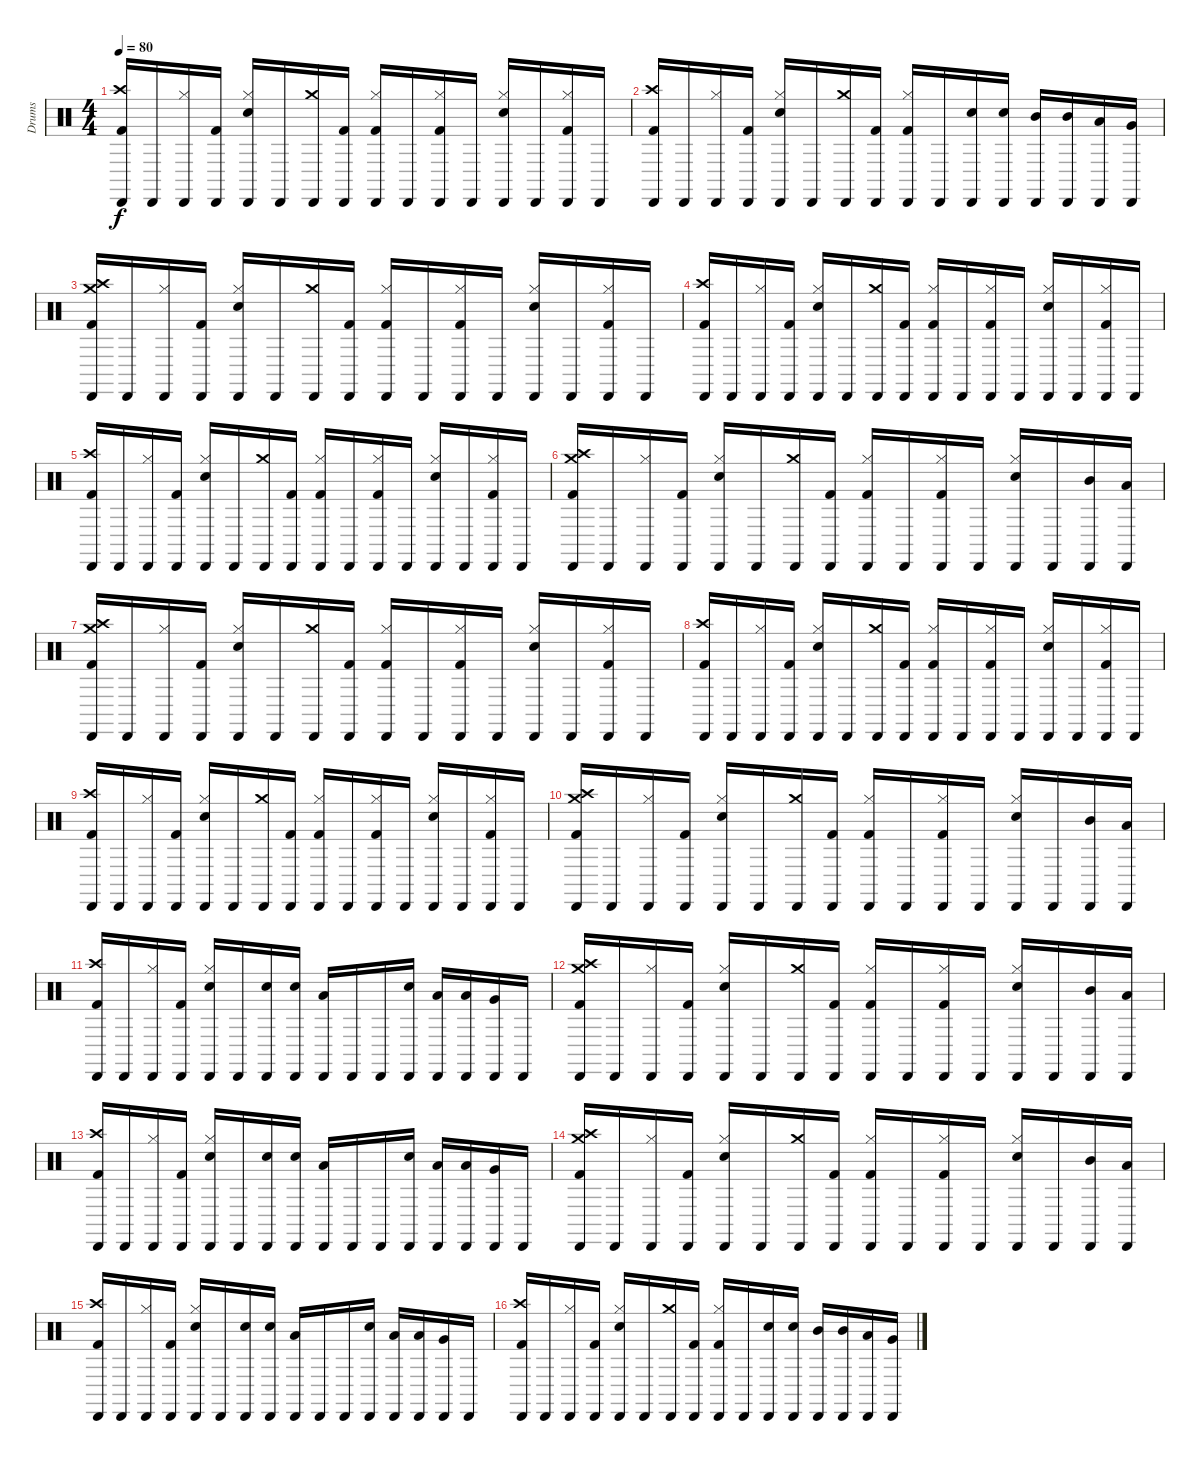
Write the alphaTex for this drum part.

\track ("Drums" "Drums") {instrument percussion}
\staff {score}
\articulation defaults
\ts (4 4)
\tempo 80
\clef neutral
\ks c
("Cabasa (hit)" "Crash high (hit)" "Kick (hit) 2").16{dy f} "Cabasa (hit)".16 ("Cabasa (hit)" "Hi-Hat (closed)").16 ("Cabasa (hit)" "Kick (hit) 2").16 ("Cabasa (hit)" "Hi-Hat (closed)" "Electric Snare (hit)").16 "Cabasa (hit)".16 ("Cabasa (hit)" "Crash medium (hit)").16 ("Cabasa (hit)" "Kick (hit) 2").16 ("Cabasa (hit)" "Hi-Hat (closed)" "Kick (hit) 2").16 "Cabasa (hit)".16 ("Cabasa (hit)" "Hi-Hat (closed)" "Kick (hit) 2").16 "Cabasa (hit)".16 ("Cabasa (hit)" "Hi-Hat (closed)" "Electric Snare (hit)").16 "Cabasa (hit)".16 ("Cabasa (hit)" "Hi-Hat (closed)" "Kick (hit) 2").16 "Cabasa (hit)".16 |
("Cabasa (hit)" "Crash high (hit)" "Kick (hit) 2").16 "Cabasa (hit)".16 ("Cabasa (hit)" "Hi-Hat (closed)").16 ("Cabasa (hit)" "Kick (hit) 2").16 ("Cabasa (hit)" "Hi-Hat (closed)" "Electric Snare (hit)").16 "Cabasa (hit)".16 ("Cabasa (hit)" "Crash medium (hit)").16 ("Cabasa (hit)" "Kick (hit) 2").16 ("Cabasa (hit)" "Hi-Hat (closed)" "Kick (hit) 2").16 "Cabasa (hit)".16 ("Cabasa (hit)" "Electric Snare (hit)").16 ("Cabasa (hit)" "Electric Snare (hit)").16 ("Cabasa (hit)" "Mid Tom (hit)").16 ("Cabasa (hit)" "Mid Tom (hit)").16 ("Cabasa (hit)" "Low Tom (hit)").16 ("Cabasa (hit)" "Very Low Tom (hit)").16 |
("Cabasa (hit)" "Crash high (hit)" "Kick (hit) 2" "Crash medium (hit)").16 "Cabasa (hit)".16 ("Cabasa (hit)" "Hi-Hat (closed)").16 ("Cabasa (hit)" "Kick (hit) 2").16 ("Cabasa (hit)" "Hi-Hat (closed)" "Electric Snare (hit)").16 "Cabasa (hit)".16 ("Cabasa (hit)" "Crash medium (hit)").16 ("Cabasa (hit)" "Kick (hit) 2").16 ("Cabasa (hit)" "Hi-Hat (closed)" "Kick (hit) 2").16 "Cabasa (hit)".16 ("Cabasa (hit)" "Hi-Hat (closed)" "Kick (hit) 2").16 "Cabasa (hit)".16 ("Cabasa (hit)" "Hi-Hat (closed)" "Electric Snare (hit)").16 "Cabasa (hit)".16 ("Cabasa (hit)" "Hi-Hat (closed)" "Kick (hit) 2").16 "Cabasa (hit)".16 |
("Cabasa (hit)" "Crash high (hit)" "Kick (hit) 2").16 "Cabasa (hit)".16 ("Cabasa (hit)" "Hi-Hat (closed)").16 ("Cabasa (hit)" "Kick (hit) 2").16 ("Cabasa (hit)" "Hi-Hat (closed)" "Electric Snare (hit)").16 "Cabasa (hit)".16 ("Cabasa (hit)" "Crash medium (hit)").16 ("Cabasa (hit)" "Kick (hit) 2").16 ("Cabasa (hit)" "Hi-Hat (closed)" "Kick (hit) 2").16 "Cabasa (hit)".16 ("Cabasa (hit)" "Hi-Hat (closed)" "Kick (hit) 2").16 "Cabasa (hit)".16 ("Cabasa (hit)" "Hi-Hat (closed)" "Electric Snare (hit)").16 "Cabasa (hit)".16 ("Cabasa (hit)" "Hi-Hat (closed)" "Kick (hit) 2").16 "Cabasa (hit)".16 |
("Cabasa (hit)" "Crash high (hit)" "Kick (hit) 2").16 "Cabasa (hit)".16 ("Cabasa (hit)" "Hi-Hat (closed)").16 ("Cabasa (hit)" "Kick (hit) 2").16 ("Cabasa (hit)" "Hi-Hat (closed)" "Electric Snare (hit)").16 "Cabasa (hit)".16 ("Cabasa (hit)" "Crash medium (hit)").16 ("Cabasa (hit)" "Kick (hit) 2").16 ("Cabasa (hit)" "Hi-Hat (closed)" "Kick (hit) 2").16 "Cabasa (hit)".16 ("Cabasa (hit)" "Hi-Hat (closed)" "Kick (hit) 2").16 "Cabasa (hit)".16 ("Cabasa (hit)" "Hi-Hat (closed)" "Electric Snare (hit)").16 "Cabasa (hit)".16 ("Cabasa (hit)" "Hi-Hat (closed)" "Kick (hit) 2").16 "Cabasa (hit)".16 |
("Cabasa (hit)" "Crash high (hit)" "Kick (hit) 2" "Crash medium (hit)").16 "Cabasa (hit)".16 ("Cabasa (hit)" "Hi-Hat (closed)").16 ("Cabasa (hit)" "Kick (hit) 2").16 ("Cabasa (hit)" "Hi-Hat (closed)" "Electric Snare (hit)").16 "Cabasa (hit)".16 ("Cabasa (hit)" "Crash medium (hit)").16 ("Cabasa (hit)" "Kick (hit) 2").16 ("Cabasa (hit)" "Hi-Hat (closed)" "Kick (hit) 2").16 "Cabasa (hit)".16 ("Cabasa (hit)" "Hi-Hat (closed)" "Kick (hit) 2").16 "Cabasa (hit)".16 ("Cabasa (hit)" "Hi-Hat (closed)" "Electric Snare (hit)").16 "Cabasa (hit)".16 ("Cabasa (hit)" "Mid Tom (hit)").16 ("Cabasa (hit)" "Low Tom (hit)").16 |
("Cabasa (hit)" "Crash high (hit)" "Kick (hit) 2" "Crash medium (hit)").16 "Cabasa (hit)".16 ("Cabasa (hit)" "Hi-Hat (closed)").16 ("Cabasa (hit)" "Kick (hit) 2").16 ("Cabasa (hit)" "Hi-Hat (closed)" "Electric Snare (hit)").16 "Cabasa (hit)".16 ("Cabasa (hit)" "Crash medium (hit)").16 ("Cabasa (hit)" "Kick (hit) 2").16 ("Cabasa (hit)" "Hi-Hat (closed)" "Kick (hit) 2").16 "Cabasa (hit)".16 ("Cabasa (hit)" "Hi-Hat (closed)" "Kick (hit) 2").16 "Cabasa (hit)".16 ("Cabasa (hit)" "Hi-Hat (closed)" "Electric Snare (hit)").16 "Cabasa (hit)".16 ("Cabasa (hit)" "Hi-Hat (closed)" "Kick (hit) 2").16 "Cabasa (hit)".16 |
("Cabasa (hit)" "Crash high (hit)" "Kick (hit) 2").16 "Cabasa (hit)".16 ("Cabasa (hit)" "Hi-Hat (closed)").16 ("Cabasa (hit)" "Kick (hit) 2").16 ("Cabasa (hit)" "Hi-Hat (closed)" "Electric Snare (hit)").16 "Cabasa (hit)".16 ("Cabasa (hit)" "Crash medium (hit)").16 ("Cabasa (hit)" "Kick (hit) 2").16 ("Cabasa (hit)" "Hi-Hat (closed)" "Kick (hit) 2").16 "Cabasa (hit)".16 ("Cabasa (hit)" "Hi-Hat (closed)" "Kick (hit) 2").16 "Cabasa (hit)".16 ("Cabasa (hit)" "Hi-Hat (closed)" "Electric Snare (hit)").16 "Cabasa (hit)".16 ("Cabasa (hit)" "Hi-Hat (closed)" "Kick (hit) 2").16 "Cabasa (hit)".16 |
("Cabasa (hit)" "Crash high (hit)" "Kick (hit) 2").16 "Cabasa (hit)".16 ("Cabasa (hit)" "Hi-Hat (closed)").16 ("Cabasa (hit)" "Kick (hit) 2").16 ("Cabasa (hit)" "Hi-Hat (closed)" "Electric Snare (hit)").16 "Cabasa (hit)".16 ("Cabasa (hit)" "Crash medium (hit)").16 ("Cabasa (hit)" "Kick (hit) 2").16 ("Cabasa (hit)" "Hi-Hat (closed)" "Kick (hit) 2").16 "Cabasa (hit)".16 ("Cabasa (hit)" "Hi-Hat (closed)" "Kick (hit) 2").16 "Cabasa (hit)".16 ("Cabasa (hit)" "Hi-Hat (closed)" "Electric Snare (hit)").16 "Cabasa (hit)".16 ("Cabasa (hit)" "Hi-Hat (closed)" "Kick (hit) 2").16 "Cabasa (hit)".16 |
("Cabasa (hit)" "Crash high (hit)" "Kick (hit) 2" "Crash medium (hit)").16 "Cabasa (hit)".16 ("Cabasa (hit)" "Hi-Hat (closed)").16 ("Cabasa (hit)" "Kick (hit) 2").16 ("Cabasa (hit)" "Hi-Hat (closed)" "Electric Snare (hit)").16 "Cabasa (hit)".16 ("Cabasa (hit)" "Crash medium (hit)").16 ("Cabasa (hit)" "Kick (hit) 2").16 ("Cabasa (hit)" "Hi-Hat (closed)" "Kick (hit) 2").16 "Cabasa (hit)".16 ("Cabasa (hit)" "Hi-Hat (closed)" "Kick (hit) 2").16 "Cabasa (hit)".16 ("Cabasa (hit)" "Hi-Hat (closed)" "Electric Snare (hit)").16 "Cabasa (hit)".16 ("Cabasa (hit)" "Mid Tom (hit)").16 ("Cabasa (hit)" "Low Tom (hit)").16 |
("Cabasa (hit)" "Crash high (hit)" "Kick (hit) 2").16 "Cabasa (hit)".16 ("Cabasa (hit)" "Hi-Hat (closed)").16 ("Cabasa (hit)" "Kick (hit) 2").16 ("Cabasa (hit)" "Hi-Hat (closed)" "Electric Snare (hit)").16 "Cabasa (hit)".16 ("Cabasa (hit)" "Electric Snare (hit)").16 ("Cabasa (hit)" "Electric Snare (hit)").16 ("Cabasa (hit)" "Low Tom (hit)").16 "Cabasa (hit)".16 "Cabasa (hit)".16 ("Cabasa (hit)" "Electric Snare (hit)").16 ("Cabasa (hit)" "Low Tom (hit)").16 ("Cabasa (hit)" "Low Tom (hit)").16 ("Cabasa (hit)" "Very Low Tom (hit)").16 "Cabasa (hit)".16 |
("Cabasa (hit)" "Crash high (hit)" "Kick (hit) 2" "Crash medium (hit)").16 "Cabasa (hit)".16 ("Cabasa (hit)" "Hi-Hat (closed)").16 ("Cabasa (hit)" "Kick (hit) 2").16 ("Cabasa (hit)" "Hi-Hat (closed)" "Electric Snare (hit)").16 "Cabasa (hit)".16 ("Cabasa (hit)" "Crash medium (hit)").16 ("Cabasa (hit)" "Kick (hit) 2").16 ("Cabasa (hit)" "Hi-Hat (closed)" "Kick (hit) 2").16 "Cabasa (hit)".16 ("Cabasa (hit)" "Hi-Hat (closed)" "Kick (hit) 2").16 "Cabasa (hit)".16 ("Cabasa (hit)" "Hi-Hat (closed)" "Electric Snare (hit)").16 "Cabasa (hit)".16 ("Cabasa (hit)" "Mid Tom (hit)").16 ("Cabasa (hit)" "Low Tom (hit)").16 |
("Cabasa (hit)" "Crash high (hit)" "Kick (hit) 2").16 "Cabasa (hit)".16 ("Cabasa (hit)" "Hi-Hat (closed)").16 ("Cabasa (hit)" "Kick (hit) 2").16 ("Cabasa (hit)" "Hi-Hat (closed)" "Electric Snare (hit)").16 "Cabasa (hit)".16 ("Cabasa (hit)" "Electric Snare (hit)").16 ("Cabasa (hit)" "Electric Snare (hit)").16 ("Cabasa (hit)" "Low Tom (hit)").16 "Cabasa (hit)".16 "Cabasa (hit)".16 ("Cabasa (hit)" "Electric Snare (hit)").16 ("Cabasa (hit)" "Low Tom (hit)").16 ("Cabasa (hit)" "Low Tom (hit)").16 ("Cabasa (hit)" "Very Low Tom (hit)").16 "Cabasa (hit)".16 |
("Cabasa (hit)" "Crash high (hit)" "Kick (hit) 2" "Crash medium (hit)").16 "Cabasa (hit)".16 ("Cabasa (hit)" "Hi-Hat (closed)").16 ("Cabasa (hit)" "Kick (hit) 2").16 ("Cabasa (hit)" "Hi-Hat (closed)" "Electric Snare (hit)").16 "Cabasa (hit)".16 ("Cabasa (hit)" "Crash medium (hit)").16 ("Cabasa (hit)" "Kick (hit) 2").16 ("Cabasa (hit)" "Hi-Hat (closed)" "Kick (hit) 2").16 "Cabasa (hit)".16 ("Cabasa (hit)" "Hi-Hat (closed)" "Kick (hit) 2").16 "Cabasa (hit)".16 ("Cabasa (hit)" "Hi-Hat (closed)" "Electric Snare (hit)").16 "Cabasa (hit)".16 ("Cabasa (hit)" "Mid Tom (hit)").16 ("Cabasa (hit)" "Low Tom (hit)").16 |
("Cabasa (hit)" "Crash high (hit)" "Kick (hit) 2").16 "Cabasa (hit)".16 ("Cabasa (hit)" "Hi-Hat (closed)").16 ("Cabasa (hit)" "Kick (hit) 2").16 ("Cabasa (hit)" "Hi-Hat (closed)" "Electric Snare (hit)").16 "Cabasa (hit)".16 ("Cabasa (hit)" "Electric Snare (hit)").16 ("Cabasa (hit)" "Electric Snare (hit)").16 ("Cabasa (hit)" "Low Tom (hit)").16 "Cabasa (hit)".16 "Cabasa (hit)".16 ("Cabasa (hit)" "Electric Snare (hit)").16 ("Cabasa (hit)" "Low Tom (hit)").16 ("Cabasa (hit)" "Low Tom (hit)").16 ("Cabasa (hit)" "Very Low Tom (hit)").16 "Cabasa (hit)".16 |
("Cabasa (hit)" "Crash high (hit)" "Kick (hit) 2").16 "Cabasa (hit)".16 ("Cabasa (hit)" "Hi-Hat (closed)").16 ("Cabasa (hit)" "Kick (hit) 2").16 ("Cabasa (hit)" "Hi-Hat (closed)" "Electric Snare (hit)").16 "Cabasa (hit)".16 ("Cabasa (hit)" "Crash medium (hit)").16 ("Cabasa (hit)" "Kick (hit) 2").16 ("Cabasa (hit)" "Hi-Hat (closed)" "Kick (hit) 2").16 "Cabasa (hit)".16 ("Cabasa (hit)" "Electric Snare (hit)").16 ("Cabasa (hit)" "Electric Snare (hit)").16 ("Cabasa (hit)" "Mid Tom (hit)").16 ("Cabasa (hit)" "Mid Tom (hit)").16 ("Cabasa (hit)" "Low Tom (hit)").16 ("Cabasa (hit)" "Very Low Tom (hit)").16
